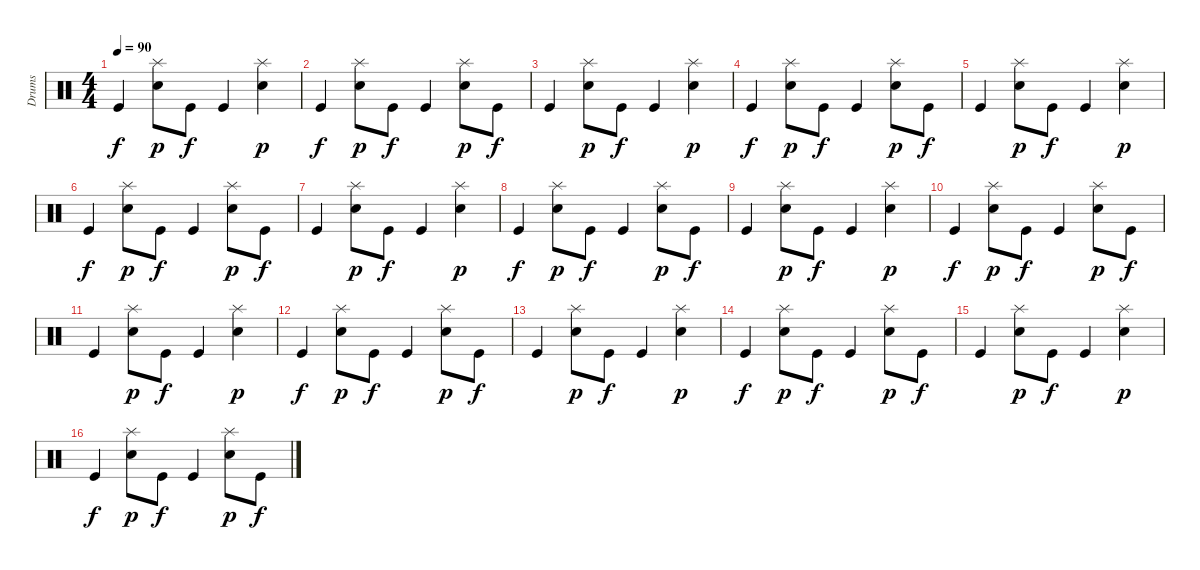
\track ("Drums" "Drums") {instrument percussion}
\staff {score}
\articulation defaults
\ts (4 4)
\tempo 90
\clef neutral
\ks c "Kick (hit)".4{dy f}
("Splash (hit)" "Snare (hit) 2").8{dy p} "Kick (hit)".8{dy f} "Kick (hit)".4 ("Splash (hit)" "Snare (hit) 2").4{dy p} |
"Kick (hit)".4{dy f} ("Splash (hit)" "Snare (hit) 2").8{dy p} "Kick (hit)".8{dy f} "Kick (hit)".4 ("Splash (hit)" "Snare (hit) 2").8{dy p} "Kick (hit)".8{dy f} |
"Kick (hit)".4 ("Splash (hit)" "Snare (hit) 2").8{dy p} "Kick (hit)".8{dy f} "Kick (hit)".4 ("Splash (hit)" "Snare (hit) 2").4{dy p} |
"Kick (hit)".4{dy f} ("Splash (hit)" "Snare (hit) 2").8{dy p} "Kick (hit)".8{dy f} "Kick (hit)".4 ("Splash (hit)" "Snare (hit) 2").8{dy p} "Kick (hit)".8{dy f} |
"Kick (hit)".4 ("Splash (hit)" "Snare (hit) 2").8{dy p} "Kick (hit)".8{dy f} "Kick (hit)".4 ("Splash (hit)" "Snare (hit) 2").4{dy p} |
"Kick (hit)".4{dy f} ("Splash (hit)" "Snare (hit) 2").8{dy p} "Kick (hit)".8{dy f} "Kick (hit)".4 ("Splash (hit)" "Snare (hit) 2").8{dy p} "Kick (hit)".8{dy f} |
"Kick (hit)".4 ("Splash (hit)" "Snare (hit) 2").8{dy p} "Kick (hit)".8{dy f} "Kick (hit)".4 ("Splash (hit)" "Snare (hit) 2").4{dy p} |
"Kick (hit)".4{dy f} ("Splash (hit)" "Snare (hit) 2").8{dy p} "Kick (hit)".8{dy f} "Kick (hit)".4 ("Splash (hit)" "Snare (hit) 2").8{dy p} "Kick (hit)".8{dy f} |
"Kick (hit)".4 ("Splash (hit)" "Snare (hit) 2").8{dy p} "Kick (hit)".8{dy f} "Kick (hit)".4 ("Splash (hit)" "Snare (hit) 2").4{dy p} |
"Kick (hit)".4{dy f} ("Splash (hit)" "Snare (hit) 2").8{dy p} "Kick (hit)".8{dy f} "Kick (hit)".4 ("Splash (hit)" "Snare (hit) 2").8{dy p} "Kick (hit)".8{dy f} |
"Kick (hit)".4 ("Splash (hit)" "Snare (hit) 2").8{dy p} "Kick (hit)".8{dy f} "Kick (hit)".4 ("Splash (hit)" "Snare (hit) 2").4{dy p} |
"Kick (hit)".4{dy f} ("Splash (hit)" "Snare (hit) 2").8{dy p} "Kick (hit)".8{dy f} "Kick (hit)".4 ("Splash (hit)" "Snare (hit) 2").8{dy p} "Kick (hit)".8{dy f} |
"Kick (hit)".4 ("Splash (hit)" "Snare (hit) 2").8{dy p} "Kick (hit)".8{dy f} "Kick (hit)".4 ("Splash (hit)" "Snare (hit) 2").4{dy p} |
"Kick (hit)".4{dy f} ("Splash (hit)" "Snare (hit) 2").8{dy p} "Kick (hit)".8{dy f} "Kick (hit)".4 ("Splash (hit)" "Snare (hit) 2").8{dy p} "Kick (hit)".8{dy f} |
"Kick (hit)".4 ("Splash (hit)" "Snare (hit) 2").8{dy p} "Kick (hit)".8{dy f} "Kick (hit)".4 ("Splash (hit)" "Snare (hit) 2").4{dy p} |
"Kick (hit)".4{dy f} ("Splash (hit)" "Snare (hit) 2").8{dy p} "Kick (hit)".8{dy f} "Kick (hit)".4 ("Splash (hit)" "Snare (hit) 2").8{dy p} "Kick (hit)".8{dy f}
